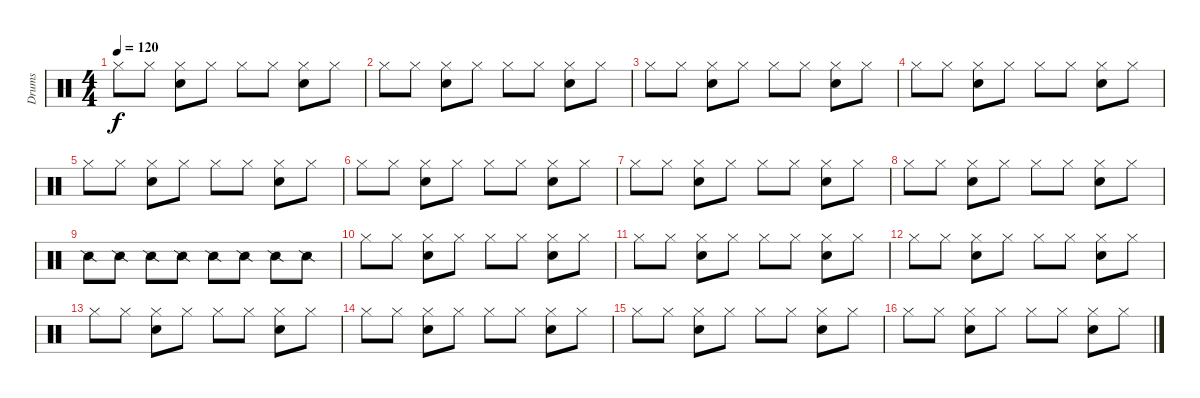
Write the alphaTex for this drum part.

\track ("Drums" "Drums") {instrument percussion}
\staff {score}
\articulation defaults
\ts (4 4)
\tempo 120
\clef neutral
\ks c "Hi-Hat (closed)".8{dy f} "Hi-Hat (closed)".8
("Hi-Hat (closed)" "Electric Snare (hit)").8 "Hi-Hat (closed)".8 "Hi-Hat (closed)".8 "Hi-Hat (closed)".8 ("Hi-Hat (closed)" "Electric Snare (hit)").8 "Hi-Hat (closed)".8 |
"Hi-Hat (closed)".8 "Hi-Hat (closed)".8 ("Hi-Hat (closed)" "Electric Snare (hit)").8 "Hi-Hat (closed)".8 "Hi-Hat (closed)".8 "Hi-Hat (closed)".8 ("Hi-Hat (closed)" "Electric Snare (hit)").8 "Hi-Hat (closed)".8 |
"Hi-Hat (closed)".8 "Hi-Hat (closed)".8 ("Hi-Hat (closed)" "Electric Snare (hit)").8 "Hi-Hat (closed)".8 "Hi-Hat (closed)".8 "Hi-Hat (closed)".8 ("Hi-Hat (closed)" "Electric Snare (hit)").8 "Hi-Hat (closed)".8 |
"Hi-Hat (closed)".8 "Hi-Hat (closed)".8 ("Hi-Hat (closed)" "Electric Snare (hit)").8 "Hi-Hat (closed)".8 "Hi-Hat (closed)".8 "Hi-Hat (closed)".8 ("Hi-Hat (closed)" "Electric Snare (hit)").8 "Hi-Hat (closed)".8 |
"Hi-Hat (closed)".8 "Hi-Hat (closed)".8 ("Hi-Hat (closed)" "Electric Snare (hit)").8 "Hi-Hat (closed)".8 "Hi-Hat (closed)".8 "Hi-Hat (closed)".8 ("Hi-Hat (closed)" "Electric Snare (hit)").8 "Hi-Hat (closed)".8 |
"Hi-Hat (closed)".8 "Hi-Hat (closed)".8 ("Hi-Hat (closed)" "Electric Snare (hit)").8 "Hi-Hat (closed)".8 "Hi-Hat (closed)".8 "Hi-Hat (closed)".8 ("Hi-Hat (closed)" "Electric Snare (hit)").8 "Hi-Hat (closed)".8 |
"Hi-Hat (closed)".8 "Hi-Hat (closed)".8 ("Hi-Hat (closed)" "Electric Snare (hit)").8 "Hi-Hat (closed)".8 "Hi-Hat (closed)".8 "Hi-Hat (closed)".8 ("Hi-Hat (closed)" "Electric Snare (hit)").8 "Hi-Hat (closed)".8 |
"Hi-Hat (closed)".8 "Hi-Hat (closed)".8 ("Hi-Hat (closed)" "Electric Snare (hit)").8 "Hi-Hat (closed)".8 "Hi-Hat (closed)".8 "Hi-Hat (closed)".8 ("Hi-Hat (closed)" "Electric Snare (hit)").8 "Hi-Hat (closed)".8 |
"Snare (side stick) 2".8 "Snare (side stick) 2".8 "Snare (side stick) 2".8 "Snare (side stick) 2".8 "Snare (side stick) 2".8 "Snare (side stick) 2".8 "Snare (side stick) 2".8 "Snare (side stick) 2".8 |
"Hi-Hat (closed)".8 "Hi-Hat (closed)".8 ("Hi-Hat (closed)" "Electric Snare (hit)").8 "Hi-Hat (closed)".8 "Hi-Hat (closed)".8 "Hi-Hat (closed)".8 ("Hi-Hat (closed)" "Electric Snare (hit)").8 "Hi-Hat (closed)".8 |
"Hi-Hat (closed)".8 "Hi-Hat (closed)".8 ("Hi-Hat (closed)" "Electric Snare (hit)").8 "Hi-Hat (closed)".8 "Hi-Hat (closed)".8 "Hi-Hat (closed)".8 ("Hi-Hat (closed)" "Electric Snare (hit)").8 "Hi-Hat (closed)".8 |
"Hi-Hat (closed)".8 "Hi-Hat (closed)".8 ("Hi-Hat (closed)" "Electric Snare (hit)").8 "Hi-Hat (closed)".8 "Hi-Hat (closed)".8 "Hi-Hat (closed)".8 ("Hi-Hat (closed)" "Electric Snare (hit)").8 "Hi-Hat (closed)".8 |
"Hi-Hat (closed)".8 "Hi-Hat (closed)".8 ("Hi-Hat (closed)" "Electric Snare (hit)").8 "Hi-Hat (closed)".8 "Hi-Hat (closed)".8 "Hi-Hat (closed)".8 ("Hi-Hat (closed)" "Electric Snare (hit)").8 "Hi-Hat (closed)".8 |
"Hi-Hat (closed)".8 "Hi-Hat (closed)".8 ("Hi-Hat (closed)" "Electric Snare (hit)").8 "Hi-Hat (closed)".8 "Hi-Hat (closed)".8 "Hi-Hat (closed)".8 ("Hi-Hat (closed)" "Electric Snare (hit)").8 "Hi-Hat (closed)".8 |
"Hi-Hat (closed)".8 "Hi-Hat (closed)".8 ("Hi-Hat (closed)" "Electric Snare (hit)").8 "Hi-Hat (closed)".8 "Hi-Hat (closed)".8 "Hi-Hat (closed)".8 ("Hi-Hat (closed)" "Electric Snare (hit)").8 "Hi-Hat (closed)".8 |
"Hi-Hat (closed)".8 "Hi-Hat (closed)".8 ("Hi-Hat (closed)" "Electric Snare (hit)").8 "Hi-Hat (closed)".8 "Hi-Hat (closed)".8 "Hi-Hat (closed)".8 ("Hi-Hat (closed)" "Electric Snare (hit)").8 "Hi-Hat (closed)".8
